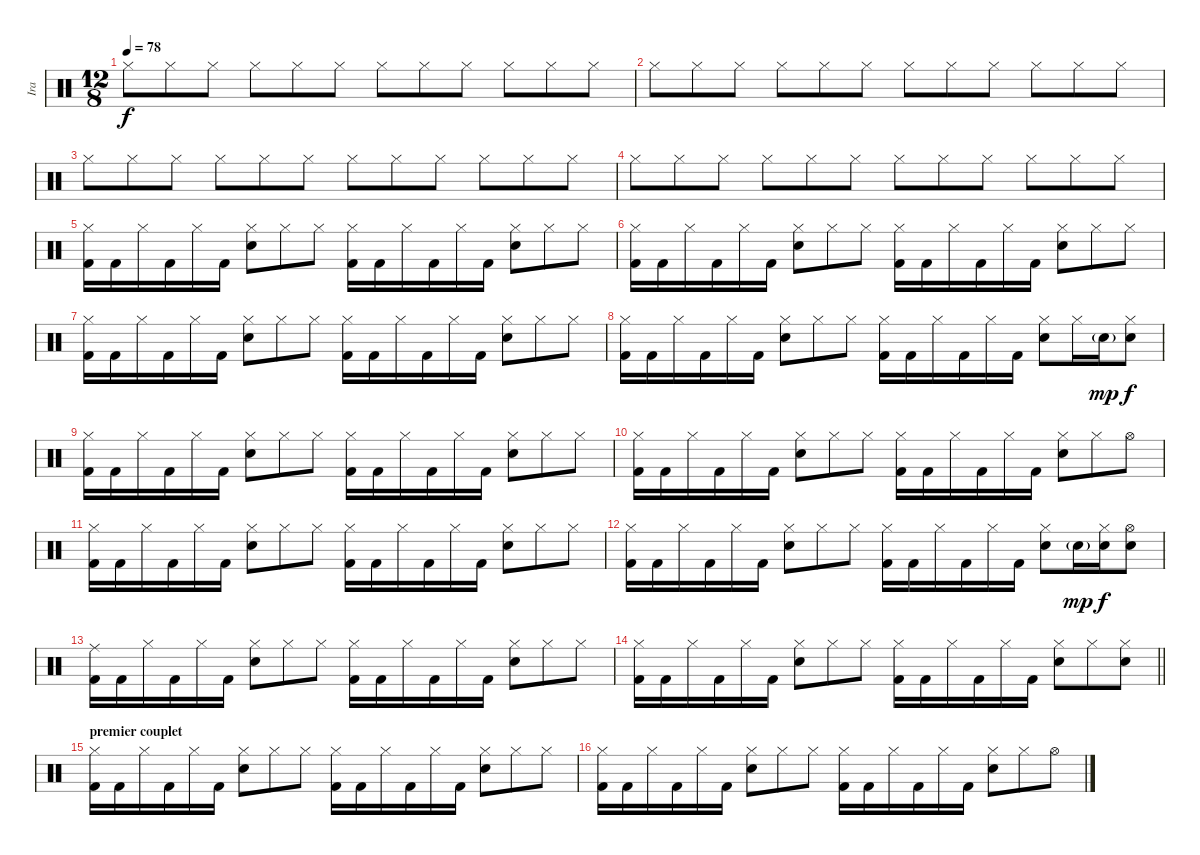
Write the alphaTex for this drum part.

\track ("Ira" "Ira") {instrument percussion}
\staff {score}
\articulation defaults
\ts (12 8)
\tempo 78
\clef neutral
\ks c "Hi-Hat (closed)".8{dy f} "Hi-Hat (closed)".8 "Hi-Hat (closed)".8 "Hi-Hat (closed)".8 "Hi-Hat (closed)".8 "Hi-Hat (closed)".8 "Hi-Hat (closed)".8 "Hi-Hat (closed)".8 "Hi-Hat (closed)".8 "Hi-Hat (closed)".8 "Hi-Hat (closed)".8 "Hi-Hat (closed)".8
|
"Hi-Hat (closed)".8 "Hi-Hat (closed)".8 "Hi-Hat (closed)".8 "Hi-Hat (closed)".8 "Hi-Hat (closed)".8 "Hi-Hat (closed)".8 "Hi-Hat (closed)".8 "Hi-Hat (closed)".8 "Hi-Hat (closed)".8 "Hi-Hat (closed)".8 "Hi-Hat (closed)".8 "Hi-Hat (closed)".8 |
"Hi-Hat (closed)".8 "Hi-Hat (closed)".8 "Hi-Hat (closed)".8 "Hi-Hat (closed)".8 "Hi-Hat (closed)".8 "Hi-Hat (closed)".8 "Hi-Hat (closed)".8 "Hi-Hat (closed)".8 "Hi-Hat (closed)".8 "Hi-Hat (closed)".8 "Hi-Hat (closed)".8 "Hi-Hat (closed)".8 |
"Hi-Hat (closed)".8 "Hi-Hat (closed)".8 "Hi-Hat (closed)".8 "Hi-Hat (closed)".8 "Hi-Hat (closed)".8 "Hi-Hat (closed)".8 "Hi-Hat (closed)".8 "Hi-Hat (closed)".8 "Hi-Hat (closed)".8 "Hi-Hat (closed)".8 "Hi-Hat (closed)".8 "Hi-Hat (closed)".8 |
("Hi-Hat (closed)" "Kick (hit) 2").16 "Kick (hit) 2".16 "Hi-Hat (closed)".16 "Kick (hit) 2".16 "Hi-Hat (closed)".16 "Kick (hit) 2".16 ("Hi-Hat (closed)" "Snare (hit) 2").8 "Hi-Hat (closed)".8 "Hi-Hat (closed)".8 ("Hi-Hat (closed)" "Kick (hit) 2").16 "Kick (hit) 2".16 "Hi-Hat (closed)".16 "Kick (hit) 2".16 "Hi-Hat (closed)".16 "Kick (hit) 2".16 ("Hi-Hat (closed)" "Snare (hit) 2").8 "Hi-Hat (closed)".8 "Hi-Hat (closed)".8 |
("Hi-Hat (closed)" "Kick (hit) 2").16 "Kick (hit) 2".16 "Hi-Hat (closed)".16 "Kick (hit) 2".16 "Hi-Hat (closed)".16 "Kick (hit) 2".16 ("Hi-Hat (closed)" "Snare (hit) 2").8 "Hi-Hat (closed)".8 "Hi-Hat (closed)".8 ("Hi-Hat (closed)" "Kick (hit) 2").16 "Kick (hit) 2".16 "Hi-Hat (closed)".16 "Kick (hit) 2".16 "Hi-Hat (closed)".16 "Kick (hit) 2".16 ("Hi-Hat (closed)" "Snare (hit) 2").8 "Hi-Hat (closed)".8 "Hi-Hat (closed)".8 |
("Hi-Hat (closed)" "Kick (hit) 2").16 "Kick (hit) 2".16 "Hi-Hat (closed)".16 "Kick (hit) 2".16 "Hi-Hat (closed)".16 "Kick (hit) 2".16 ("Hi-Hat (closed)" "Snare (hit) 2").8 "Hi-Hat (closed)".8 "Hi-Hat (closed)".8 ("Hi-Hat (closed)" "Kick (hit) 2").16 "Kick (hit) 2".16 "Hi-Hat (closed)".16 "Kick (hit) 2".16 "Hi-Hat (closed)".16 "Kick (hit) 2".16 ("Hi-Hat (closed)" "Snare (hit) 2").8 "Hi-Hat (closed)".8 "Hi-Hat (closed)".8 |
("Hi-Hat (closed)" "Kick (hit) 2").16 "Kick (hit) 2".16 "Hi-Hat (closed)".16 "Kick (hit) 2".16 "Hi-Hat (closed)".16 "Kick (hit) 2".16 ("Hi-Hat (closed)" "Snare (hit) 2").8 "Hi-Hat (closed)".8 "Hi-Hat (closed)".8 ("Hi-Hat (closed)" "Kick (hit) 2").16 "Kick (hit) 2".16 "Hi-Hat (closed)".16 "Kick (hit) 2".16 "Hi-Hat (closed)".16 "Kick (hit) 2".16 ("Hi-Hat (closed)" "Snare (hit) 2").8 "Hi-Hat (closed)".16 "Snare (hit) 2"{g}.16{dy mp} ("Hi-Hat (closed)" "Snare (hit) 2").8{dy f} |
("Hi-Hat (closed)" "Kick (hit) 2").16 "Kick (hit) 2".16 "Hi-Hat (closed)".16 "Kick (hit) 2".16 "Hi-Hat (closed)".16 "Kick (hit) 2".16 ("Hi-Hat (closed)" "Snare (hit) 2").8 "Hi-Hat (closed)".8 "Hi-Hat (closed)".8 ("Hi-Hat (closed)" "Kick (hit) 2").16 "Kick (hit) 2".16 "Hi-Hat (closed)".16 "Kick (hit) 2".16 "Hi-Hat (closed)".16 "Kick (hit) 2".16 ("Hi-Hat (closed)" "Snare (hit) 2").8 "Hi-Hat (closed)".8 "Hi-Hat (closed)".8 |
("Hi-Hat (closed)" "Kick (hit) 2").16 "Kick (hit) 2".16 "Hi-Hat (closed)".16 "Kick (hit) 2".16 "Hi-Hat (closed)".16 "Kick (hit) 2".16 ("Hi-Hat (closed)" "Snare (hit) 2").8 "Hi-Hat (closed)".8 "Hi-Hat (closed)".8 ("Hi-Hat (closed)" "Kick (hit) 2").16 "Kick (hit) 2".16 "Hi-Hat (closed)".16 "Kick (hit) 2".16 "Hi-Hat (closed)".16 "Kick (hit) 2".16 ("Hi-Hat (closed)" "Snare (hit) 2").8 "Hi-Hat (closed)".8 "Hi-Hat (open)".8 |
("Hi-Hat (closed)" "Kick (hit) 2").16 "Kick (hit) 2".16 "Hi-Hat (closed)".16 "Kick (hit) 2".16 "Hi-Hat (closed)".16 "Kick (hit) 2".16 ("Hi-Hat (closed)" "Snare (hit) 2").8 "Hi-Hat (closed)".8 "Hi-Hat (closed)".8 ("Hi-Hat (closed)" "Kick (hit) 2").16 "Kick (hit) 2".16 "Hi-Hat (closed)".16 "Kick (hit) 2".16 "Hi-Hat (closed)".16 "Kick (hit) 2".16 ("Hi-Hat (closed)" "Snare (hit) 2").8 "Hi-Hat (closed)".8 "Hi-Hat (closed)".8 |
("Hi-Hat (closed)" "Kick (hit) 2").16 "Kick (hit) 2".16 "Hi-Hat (closed)".16 "Kick (hit) 2".16 "Hi-Hat (closed)".16 "Kick (hit) 2".16 ("Hi-Hat (closed)" "Snare (hit) 2").8 "Hi-Hat (closed)".8 "Hi-Hat (closed)".8 ("Hi-Hat (closed)" "Kick (hit) 2").16 "Kick (hit) 2".16 "Hi-Hat (closed)".16 "Kick (hit) 2".16 "Hi-Hat (closed)".16 "Kick (hit) 2".16 ("Hi-Hat (closed)" "Snare (hit) 2").8 "Snare (hit) 2"{g}.16{dy mp} ("Hi-Hat (closed)" "Snare (hit) 2").16{dy f} ("Hi-Hat (open)" "Snare (hit) 2").8 |
("Ride (middle)" "Kick (hit) 2").16 "Kick (hit) 2".16 "Hi-Hat (closed)".16 "Kick (hit) 2".16 "Hi-Hat (closed)".16 "Kick (hit) 2".16 ("Hi-Hat (closed)" "Snare (hit) 2").8 "Hi-Hat (closed)".8 "Hi-Hat (closed)".8 ("Hi-Hat (closed)" "Kick (hit) 2").16 "Kick (hit) 2".16 "Hi-Hat (closed)".16 "Kick (hit) 2".16 "Hi-Hat (closed)".16 "Kick (hit) 2".16 ("Hi-Hat (closed)" "Snare (hit) 2").8 "Hi-Hat (closed)".8 "Hi-Hat (closed)".8 |
\barLineRight lightlight
("Hi-Hat (closed)" "Kick (hit) 2").16 "Kick (hit) 2".16 "Hi-Hat (closed)".16 "Kick (hit) 2".16 "Hi-Hat (closed)".16 "Kick (hit) 2".16 ("Hi-Hat (closed)" "Snare (hit) 2").8 "Hi-Hat (closed)".8 "Hi-Hat (closed)".8 ("Hi-Hat (closed)" "Kick (hit) 2").16 "Kick (hit) 2".16 "Hi-Hat (closed)".16 "Kick (hit) 2".16 "Hi-Hat (closed)".16 "Kick (hit) 2".16 ("Hi-Hat (closed)" "Snare (hit) 2").8 "Hi-Hat (closed)".8 ("Hi-Hat (closed)" "Snare (hit) 2").8 |
\section ("" "premier couplet")
("Hi-Hat (closed)" "Kick (hit) 2").16 "Kick (hit) 2".16 "Hi-Hat (closed)".16 "Kick (hit) 2".16 "Hi-Hat (closed)".16 "Kick (hit) 2".16 ("Hi-Hat (closed)" "Snare (hit) 2").8 "Hi-Hat (closed)".8 "Hi-Hat (closed)".8 ("Hi-Hat (closed)" "Kick (hit) 2").16 "Kick (hit) 2".16 "Hi-Hat (closed)".16 "Kick (hit) 2".16 "Hi-Hat (closed)".16 "Kick (hit) 2".16 ("Hi-Hat (closed)" "Snare (hit) 2").8 "Hi-Hat (closed)".8 "Hi-Hat (closed)".8 |
("Hi-Hat (closed)" "Kick (hit) 2").16 "Kick (hit) 2".16 "Hi-Hat (closed)".16 "Kick (hit) 2".16 "Hi-Hat (closed)".16 "Kick (hit) 2".16 ("Hi-Hat (closed)" "Snare (hit) 2").8 "Hi-Hat (closed)".8 "Hi-Hat (closed)".8 ("Hi-Hat (closed)" "Kick (hit) 2").16 "Kick (hit) 2".16 "Hi-Hat (closed)".16 "Kick (hit) 2".16 "Hi-Hat (closed)".16 "Kick (hit) 2".16 ("Hi-Hat (closed)" "Snare (hit) 2").8 "Hi-Hat (closed)".8 "Hi-Hat (open)".8
